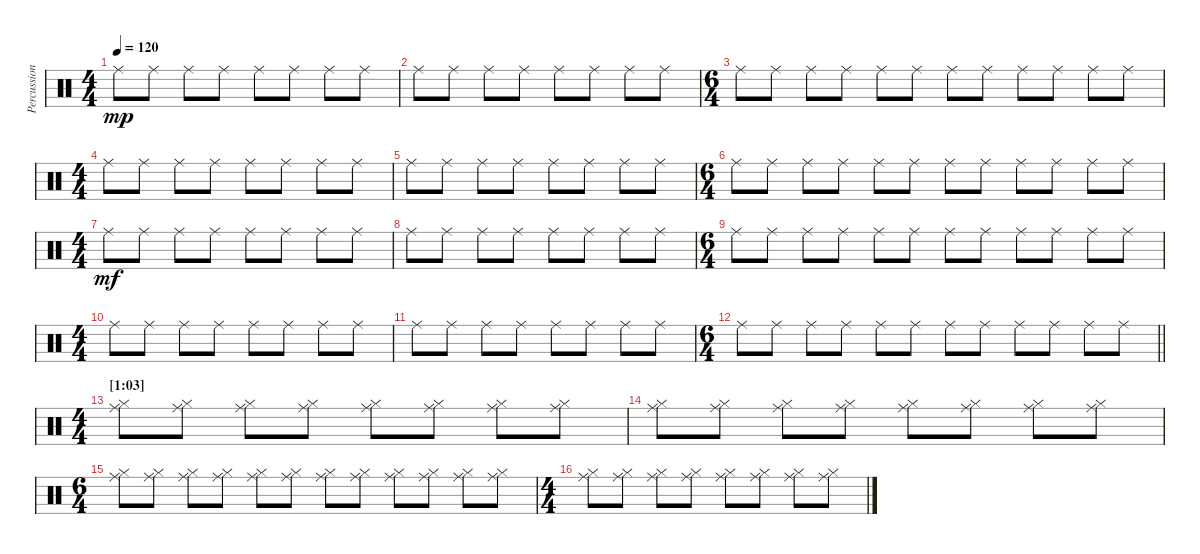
\track ("Percussion" "Percussion") {instrument percussion}
\staff {score}
\articulation defaults
\ts (4 4)
\tempo 120
\clef neutral
\ks c "Ride (middle)".8{dy mp} "Ride (middle)".8 "Ride (middle)".8 "Ride (middle)".8 "Ride (middle)".8 "Ride (middle)".8 "Ride (middle)".8 "Ride (middle)".8
|
"Ride (middle)".8 "Ride (middle)".8 "Ride (middle)".8 "Ride (middle)".8 "Ride (middle)".8 "Ride (middle)".8 "Ride (middle)".8 "Ride (middle)".8 |
\ts (6 4)
"Ride (middle)".8 "Ride (middle)".8 "Ride (middle)".8 "Ride (middle)".8 "Ride (middle)".8 "Ride (middle)".8 "Ride (middle)".8 "Ride (middle)".8 "Ride (middle)".8 "Ride (middle)".8 "Ride (middle)".8 "Ride (middle)".8 |
\ts (4 4)
"Ride (middle)".8 "Ride (middle)".8 "Ride (middle)".8 "Ride (middle)".8 "Ride (middle)".8 "Ride (middle)".8 "Ride (middle)".8 "Ride (middle)".8 |
"Ride (middle)".8 "Ride (middle)".8 "Ride (middle)".8 "Ride (middle)".8 "Ride (middle)".8 "Ride (middle)".8 "Ride (middle)".8 "Ride (middle)".8 |
\ts (6 4)
"Ride (middle)".8 "Ride (middle)".8 "Ride (middle)".8 "Ride (middle)".8 "Ride (middle)".8 "Ride (middle)".8 "Ride (middle)".8 "Ride (middle)".8 "Ride (middle)".8 "Ride (middle)".8 "Ride (middle)".8 "Ride (middle)".8 |
\ts (4 4)
"Ride (middle)".8{dy mf} "Ride (middle)".8 "Ride (middle)".8 "Ride (middle)".8 "Ride (middle)".8 "Ride (middle)".8 "Ride (middle)".8 "Ride (middle)".8 |
"Ride (middle)".8 "Ride (middle)".8 "Ride (middle)".8 "Ride (middle)".8 "Ride (middle)".8 "Ride (middle)".8 "Ride (middle)".8 "Ride (middle)".8 |
\ts (6 4)
"Ride (middle)".8 "Ride (middle)".8 "Ride (middle)".8 "Ride (middle)".8 "Ride (middle)".8 "Ride (middle)".8 "Ride (middle)".8 "Ride (middle)".8 "Ride (middle)".8 "Ride (middle)".8 "Ride (middle)".8 "Ride (middle)".8 |
\ts (4 4)
"Ride (middle)".8 "Ride (middle)".8 "Ride (middle)".8 "Ride (middle)".8 "Ride (middle)".8 "Ride (middle)".8 "Ride (middle)".8 "Ride (middle)".8 |
"Ride (middle)".8 "Ride (middle)".8 "Ride (middle)".8 "Ride (middle)".8 "Ride (middle)".8 "Ride (middle)".8 "Ride (middle)".8 "Ride (middle)".8 |
\ts (6 4)
\barLineRight lightlight "Ride (middle)".8 "Ride (middle)".8 "Ride (middle)".8 "Ride (middle)".8 "Ride (middle)".8 "Ride (middle)".8 "Ride (middle)".8 "Ride (middle)".8 "Ride (middle)".8 "Ride (middle)".8 "Ride (middle)".8 "Ride (middle)".8
|
\ts (4 4)
\section ("" "[1:03]")
("Ride (middle)" "Hi-Hat (closed)").8 ("Ride (middle)" "Hi-Hat (closed)").8 ("Ride (middle)" "Hi-Hat (closed)").8 ("Ride (middle)" "Hi-Hat (closed)").8 ("Ride (middle)" "Hi-Hat (closed)").8 ("Ride (middle)" "Hi-Hat (closed)").8 ("Ride (middle)" "Hi-Hat (closed)").8 ("Ride (middle)" "Hi-Hat (closed)").8 |
("Ride (middle)" "Hi-Hat (closed)").8 ("Ride (middle)" "Hi-Hat (closed)").8 ("Ride (middle)" "Hi-Hat (closed)").8 ("Ride (middle)" "Hi-Hat (closed)").8 ("Ride (middle)" "Hi-Hat (closed)").8 ("Ride (middle)" "Hi-Hat (closed)").8 ("Ride (middle)" "Hi-Hat (closed)").8 ("Ride (middle)" "Hi-Hat (closed)").8 |
\ts (6 4)
("Ride (middle)" "Hi-Hat (closed)").8 ("Ride (middle)" "Hi-Hat (closed)").8 ("Ride (middle)" "Hi-Hat (closed)").8 ("Ride (middle)" "Hi-Hat (closed)").8 ("Ride (middle)" "Hi-Hat (closed)").8 ("Ride (middle)" "Hi-Hat (closed)").8 ("Ride (middle)" "Hi-Hat (closed)").8 ("Ride (middle)" "Hi-Hat (closed)").8 ("Ride (middle)" "Hi-Hat (closed)").8 ("Ride (middle)" "Hi-Hat (closed)").8 ("Ride (middle)" "Hi-Hat (closed)").8 ("Ride (middle)" "Hi-Hat (closed)").8 |
\ts (4 4)
("Ride (middle)" "Hi-Hat (closed)").8 ("Ride (middle)" "Hi-Hat (closed)").8 ("Ride (middle)" "Hi-Hat (closed)").8 ("Ride (middle)" "Hi-Hat (closed)").8 ("Ride (middle)" "Hi-Hat (closed)").8 ("Ride (middle)" "Hi-Hat (closed)").8 ("Ride (middle)" "Hi-Hat (closed)").8 ("Ride (middle)" "Hi-Hat (closed)").8
